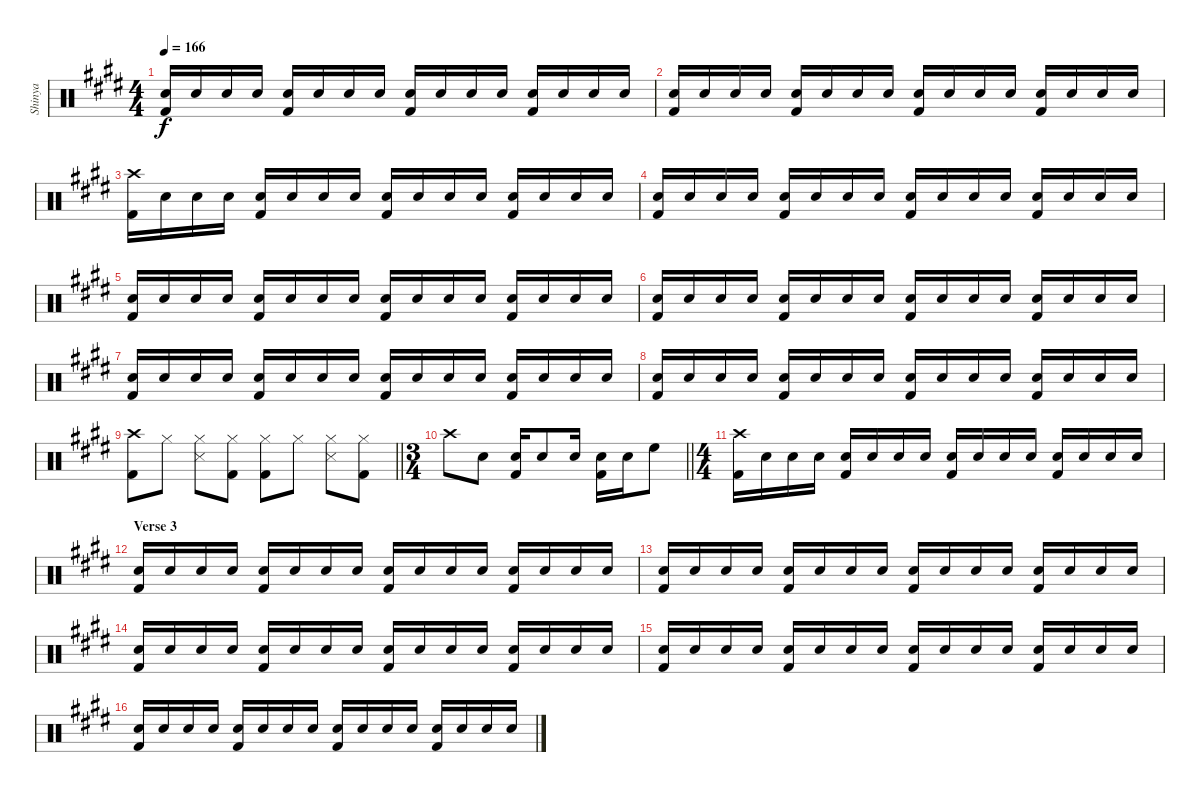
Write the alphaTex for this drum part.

\track ("Shinya" "Shinya") {instrument percussion}
\staff {score}
\articulation defaults
\ts (4 4)
\tempo 166
\clef neutral
\ks e
("Snare (hit) 2" "Kick (hit) 2").16{dy f} "Snare (hit) 2".16 "Snare (hit) 2".16 "Snare (hit) 2".16 ("Snare (hit) 2" "Kick (hit) 2").16 "Snare (hit) 2".16 "Snare (hit) 2".16 "Snare (hit) 2".16 ("Snare (hit) 2" "Kick (hit) 2").16 "Snare (hit) 2".16 "Snare (hit) 2".16 "Snare (hit) 2".16 ("Snare (hit) 2" "Kick (hit) 2").16 "Snare (hit) 2".16 "Snare (hit) 2".16 "Snare (hit) 2".16 |
("Snare (hit) 2" "Kick (hit) 2").16 "Snare (hit) 2".16 "Snare (hit) 2".16 "Snare (hit) 2".16 ("Snare (hit) 2" "Kick (hit) 2").16 "Snare (hit) 2".16 "Snare (hit) 2".16 "Snare (hit) 2".16 ("Snare (hit) 2" "Kick (hit) 2").16 "Snare (hit) 2".16 "Snare (hit) 2".16 "Snare (hit) 2".16 ("Snare (hit) 2" "Kick (hit) 2").16 "Snare (hit) 2".16 "Snare (hit) 2".16 "Snare (hit) 2".16 |
("Crash high (hit)" "Kick (hit) 2").16 "Snare (hit) 2".16 "Snare (hit) 2".16 "Snare (hit) 2".16 ("Snare (hit) 2" "Kick (hit) 2").16 "Snare (hit) 2".16 "Snare (hit) 2".16 "Snare (hit) 2".16 ("Snare (hit) 2" "Kick (hit) 2").16 "Snare (hit) 2".16 "Snare (hit) 2".16 "Snare (hit) 2".16 ("Snare (hit) 2" "Kick (hit) 2").16 "Snare (hit) 2".16 "Snare (hit) 2".16 "Snare (hit) 2".16 |
("Snare (hit) 2" "Kick (hit) 2").16 "Snare (hit) 2".16 "Snare (hit) 2".16 "Snare (hit) 2".16 ("Snare (hit) 2" "Kick (hit) 2").16 "Snare (hit) 2".16 "Snare (hit) 2".16 "Snare (hit) 2".16 ("Snare (hit) 2" "Kick (hit) 2").16 "Snare (hit) 2".16 "Snare (hit) 2".16 "Snare (hit) 2".16 ("Snare (hit) 2" "Kick (hit) 2").16 "Snare (hit) 2".16 "Snare (hit) 2".16 "Snare (hit) 2".16 |
("Snare (hit) 2" "Kick (hit) 2").16 "Snare (hit) 2".16 "Snare (hit) 2".16 "Snare (hit) 2".16 ("Snare (hit) 2" "Kick (hit) 2").16 "Snare (hit) 2".16 "Snare (hit) 2".16 "Snare (hit) 2".16 ("Snare (hit) 2" "Kick (hit) 2").16 "Snare (hit) 2".16 "Snare (hit) 2".16 "Snare (hit) 2".16 ("Snare (hit) 2" "Kick (hit) 2").16 "Snare (hit) 2".16 "Snare (hit) 2".16 "Snare (hit) 2".16 |
("Snare (hit) 2" "Kick (hit) 2").16 "Snare (hit) 2".16 "Snare (hit) 2".16 "Snare (hit) 2".16 ("Snare (hit) 2" "Kick (hit) 2").16 "Snare (hit) 2".16 "Snare (hit) 2".16 "Snare (hit) 2".16 ("Snare (hit) 2" "Kick (hit) 2").16 "Snare (hit) 2".16 "Snare (hit) 2".16 "Snare (hit) 2".16 ("Snare (hit) 2" "Kick (hit) 2").16 "Snare (hit) 2".16 "Snare (hit) 2".16 "Snare (hit) 2".16 |
("Snare (hit) 2" "Kick (hit) 2").16 "Snare (hit) 2".16 "Snare (hit) 2".16 "Snare (hit) 2".16 ("Snare (hit) 2" "Kick (hit) 2").16 "Snare (hit) 2".16 "Snare (hit) 2".16 "Snare (hit) 2".16 ("Snare (hit) 2" "Kick (hit) 2").16 "Snare (hit) 2".16 "Snare (hit) 2".16 "Snare (hit) 2".16 ("Snare (hit) 2" "Kick (hit) 2").16 "Snare (hit) 2".16 "Snare (hit) 2".16 "Snare (hit) 2".16 |
("Snare (hit) 2" "Kick (hit) 2").16 "Snare (hit) 2".16 "Snare (hit) 2".16 "Snare (hit) 2".16 ("Snare (hit) 2" "Kick (hit) 2").16 "Snare (hit) 2".16 "Snare (hit) 2".16 "Snare (hit) 2".16 ("Snare (hit) 2" "Kick (hit) 2").16 "Snare (hit) 2".16 "Snare (hit) 2".16 "Snare (hit) 2".16 ("Snare (hit) 2" "Kick (hit) 2").16 "Snare (hit) 2".16 "Snare (hit) 2".16 "Snare (hit) 2".16 |
\barLineRight lightlight
("Crash high (hit)" "Kick (hit) 2").8 "Hi-Hat (closed)".8 ("Hi-Hat (closed)" "Snare (side stick) 3").8 ("Hi-Hat (closed)" "Kick (hit) 2").8 ("Hi-Hat (closed)" "Kick (hit) 2").8 "Hi-Hat (closed)".8 ("Hi-Hat (closed)" "Snare (side stick) 3").8 ("Hi-Hat (closed)" "Kick (hit) 2").8 |
\ts (3 4)
\barLineRight lightlight "Crash high (hit)".8 "Snare (hit) 2".8
("Snare (hit) 2" "Kick (hit) 2").16 "Snare (hit) 2".8 "Snare (hit) 2".16 ("Snare (hit) 2" "Kick (hit) 2").16 "Snare (hit) 2".16 "High Floor Tom (hit)".8 |
\ts (4 4)
("Crash high (hit)" "Kick (hit) 2").16 "Snare (hit) 2".16 "Snare (hit) 2".16 "Snare (hit) 2".16 ("Snare (hit) 2" "Kick (hit) 2").16 "Snare (hit) 2".16 "Snare (hit) 2".16 "Snare (hit) 2".16 ("Snare (hit) 2" "Kick (hit) 2").16 "Snare (hit) 2".16 "Snare (hit) 2".16 "Snare (hit) 2".16 ("Snare (hit) 2" "Kick (hit) 2").16 "Snare (hit) 2".16 "Snare (hit) 2".16 "Snare (hit) 2".16 |
\section ("" "Verse 3")
("Snare (hit) 2" "Kick (hit) 2").16 "Snare (hit) 2".16 "Snare (hit) 2".16 "Snare (hit) 2".16 ("Snare (hit) 2" "Kick (hit) 2").16 "Snare (hit) 2".16 "Snare (hit) 2".16 "Snare (hit) 2".16 ("Snare (hit) 2" "Kick (hit) 2").16 "Snare (hit) 2".16 "Snare (hit) 2".16 "Snare (hit) 2".16 ("Snare (hit) 2" "Kick (hit) 2").16 "Snare (hit) 2".16 "Snare (hit) 2".16 "Snare (hit) 2".16 |
("Snare (hit) 2" "Kick (hit) 2").16 "Snare (hit) 2".16 "Snare (hit) 2".16 "Snare (hit) 2".16 ("Snare (hit) 2" "Kick (hit) 2").16 "Snare (hit) 2".16 "Snare (hit) 2".16 "Snare (hit) 2".16 ("Snare (hit) 2" "Kick (hit) 2").16 "Snare (hit) 2".16 "Snare (hit) 2".16 "Snare (hit) 2".16 ("Snare (hit) 2" "Kick (hit) 2").16 "Snare (hit) 2".16 "Snare (hit) 2".16 "Snare (hit) 2".16 |
("Snare (hit) 2" "Kick (hit) 2").16 "Snare (hit) 2".16 "Snare (hit) 2".16 "Snare (hit) 2".16 ("Snare (hit) 2" "Kick (hit) 2").16 "Snare (hit) 2".16 "Snare (hit) 2".16 "Snare (hit) 2".16 ("Snare (hit) 2" "Kick (hit) 2").16 "Snare (hit) 2".16 "Snare (hit) 2".16 "Snare (hit) 2".16 ("Snare (hit) 2" "Kick (hit) 2").16 "Snare (hit) 2".16 "Snare (hit) 2".16 "Snare (hit) 2".16 |
("Snare (hit) 2" "Kick (hit) 2").16 "Snare (hit) 2".16 "Snare (hit) 2".16 "Snare (hit) 2".16 ("Snare (hit) 2" "Kick (hit) 2").16 "Snare (hit) 2".16 "Snare (hit) 2".16 "Snare (hit) 2".16 ("Snare (hit) 2" "Kick (hit) 2").16 "Snare (hit) 2".16 "Snare (hit) 2".16 "Snare (hit) 2".16 ("Snare (hit) 2" "Kick (hit) 2").16 "Snare (hit) 2".16 "Snare (hit) 2".16 "Snare (hit) 2".16 |
("Snare (hit) 2" "Kick (hit) 2").16 "Snare (hit) 2".16 "Snare (hit) 2".16 "Snare (hit) 2".16 ("Snare (hit) 2" "Kick (hit) 2").16 "Snare (hit) 2".16 "Snare (hit) 2".16 "Snare (hit) 2".16 ("Snare (hit) 2" "Kick (hit) 2").16 "Snare (hit) 2".16 "Snare (hit) 2".16 "Snare (hit) 2".16 ("Snare (hit) 2" "Kick (hit) 2").16 "Snare (hit) 2".16 "Snare (hit) 2".16 "Snare (hit) 2".16
